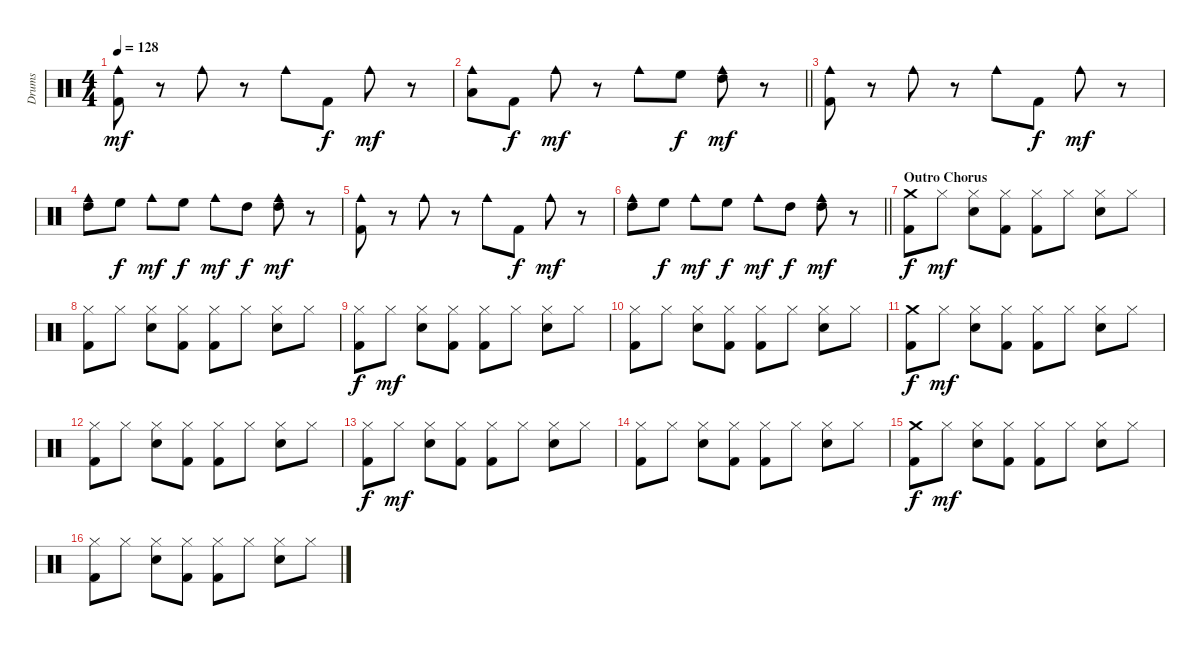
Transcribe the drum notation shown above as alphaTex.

\track ("Drums" "Drums") {instrument percussion}
\staff {score}
\articulation defaults
\ts (4 4)
\tempo 128
\clef neutral
\ks c
("Cowbell medium (hit)" "Kick (hit) 2").8{dy mf} r.8 "Cowbell medium (hit)".8 r.8 "Cowbell medium (hit)".8 "Kick (hit) 2".8{dy f} "Cowbell medium (hit)".8{dy mf} r.8 |
\barLineRight lightlight
("Cowbell medium (hit)" "Low Tom (hit)").8 "Kick (hit) 2".8{dy f} "Cowbell medium (hit)".8{dy mf} r.8 "Cowbell medium (hit)".8 "High Floor Tom (hit)".8{dy f} ("Cowbell medium (hit)" "High Tom (hit)").8{dy mf} r.8 |
("Cowbell medium (hit)" "Kick (hit) 2").8 r.8 "Cowbell medium (hit)".8 r.8 "Cowbell medium (hit)".8 "Kick (hit) 2".8{dy f} "Cowbell medium (hit)".8{dy mf} r.8 |
("Cowbell medium (hit)" "High Tom (hit)").8 "High Floor Tom (hit)".8{dy f} "Cowbell medium (hit)".8{dy mf} "High Floor Tom (hit)".8{dy f} "Cowbell medium (hit)".8{dy mf} "High Tom (hit)".8{dy f} ("Cowbell medium (hit)" "High Tom (hit)").8{dy mf} r.8 |
("Cowbell medium (hit)" "Kick (hit) 2").8 r.8 "Cowbell medium (hit)".8 r.8 "Cowbell medium (hit)".8 "Kick (hit) 2".8{dy f} "Cowbell medium (hit)".8{dy mf} r.8 |
\barLineRight lightlight
("Cowbell medium (hit)" "High Tom (hit)").8 "High Floor Tom (hit)".8{dy f} "Cowbell medium (hit)".8{dy mf} "High Floor Tom (hit)".8{dy f} "Cowbell medium (hit)".8{dy mf} "High Tom (hit)".8{dy f} ("Cowbell medium (hit)" "High Tom (hit)").8{dy mf} r.8 |
\section ("" "Outro Chorus")
("Crash medium (hit)" "Kick (hit) 2").8{dy f} "Hi-Hat (closed)".8{dy mf} ("Hi-Hat (closed)" "Snare (hit) 2").8 ("Hi-Hat (closed)" "Kick (hit) 2").8 ("Hi-Hat (closed)" "Kick (hit) 2").8 "Hi-Hat (closed)".8 ("Hi-Hat (closed)" "Snare (hit) 2").8 "Hi-Hat (closed)".8 |
("Hi-Hat (closed)" "Kick (hit) 2").8 "Hi-Hat (closed)".8 ("Hi-Hat (closed)" "Snare (hit) 2").8 ("Hi-Hat (closed)" "Kick (hit) 2").8 ("Hi-Hat (closed)" "Kick (hit) 2").8 "Hi-Hat (closed)".8 ("Hi-Hat (closed)" "Snare (hit) 2").8 "Hi-Hat (closed)".8 |
("Hi-Hat (closed)" "Kick (hit) 2").8{dy f} "Hi-Hat (closed)".8{dy mf} ("Hi-Hat (closed)" "Snare (hit) 2").8 ("Hi-Hat (closed)" "Kick (hit) 2").8 ("Hi-Hat (closed)" "Kick (hit) 2").8 "Hi-Hat (closed)".8 ("Hi-Hat (closed)" "Snare (hit) 2").8 "Hi-Hat (closed)".8 |
("Hi-Hat (closed)" "Kick (hit) 2").8 "Hi-Hat (closed)".8 ("Hi-Hat (closed)" "Snare (hit) 2").8 ("Hi-Hat (closed)" "Kick (hit) 2").8 ("Hi-Hat (closed)" "Kick (hit) 2").8 "Hi-Hat (closed)".8 ("Hi-Hat (closed)" "Snare (hit) 2").8 "Hi-Hat (closed)".8 |
("Crash medium (hit)" "Kick (hit) 2").8{dy f} "Hi-Hat (closed)".8{dy mf} ("Hi-Hat (closed)" "Snare (hit) 2").8 ("Hi-Hat (closed)" "Kick (hit) 2").8 ("Hi-Hat (closed)" "Kick (hit) 2").8 "Hi-Hat (closed)".8 ("Hi-Hat (closed)" "Snare (hit) 2").8 "Hi-Hat (closed)".8 |
("Hi-Hat (closed)" "Kick (hit) 2").8 "Hi-Hat (closed)".8 ("Hi-Hat (closed)" "Snare (hit) 2").8 ("Hi-Hat (closed)" "Kick (hit) 2").8 ("Hi-Hat (closed)" "Kick (hit) 2").8 "Hi-Hat (closed)".8 ("Hi-Hat (closed)" "Snare (hit) 2").8 "Hi-Hat (closed)".8 |
("Hi-Hat (closed)" "Kick (hit) 2").8{dy f} "Hi-Hat (closed)".8{dy mf} ("Hi-Hat (closed)" "Snare (hit) 2").8 ("Hi-Hat (closed)" "Kick (hit) 2").8 ("Hi-Hat (closed)" "Kick (hit) 2").8 "Hi-Hat (closed)".8 ("Hi-Hat (closed)" "Snare (hit) 2").8 "Hi-Hat (closed)".8 |
("Hi-Hat (closed)" "Kick (hit) 2").8 "Hi-Hat (closed)".8 ("Hi-Hat (closed)" "Snare (hit) 2").8 ("Hi-Hat (closed)" "Kick (hit) 2").8 ("Hi-Hat (closed)" "Kick (hit) 2").8 "Hi-Hat (closed)".8 ("Hi-Hat (closed)" "Snare (hit) 2").8 "Hi-Hat (closed)".8 |
("Crash medium (hit)" "Kick (hit) 2").8{dy f} "Hi-Hat (closed)".8{dy mf} ("Hi-Hat (closed)" "Snare (hit) 2").8 ("Hi-Hat (closed)" "Kick (hit) 2").8 ("Hi-Hat (closed)" "Kick (hit) 2").8 "Hi-Hat (closed)".8 ("Hi-Hat (closed)" "Snare (hit) 2").8 "Hi-Hat (closed)".8 |
("Hi-Hat (closed)" "Kick (hit) 2").8 "Hi-Hat (closed)".8 ("Hi-Hat (closed)" "Snare (hit) 2").8 ("Hi-Hat (closed)" "Kick (hit) 2").8 ("Hi-Hat (closed)" "Kick (hit) 2").8 "Hi-Hat (closed)".8 ("Hi-Hat (closed)" "Snare (hit) 2").8 "Hi-Hat (closed)".8
